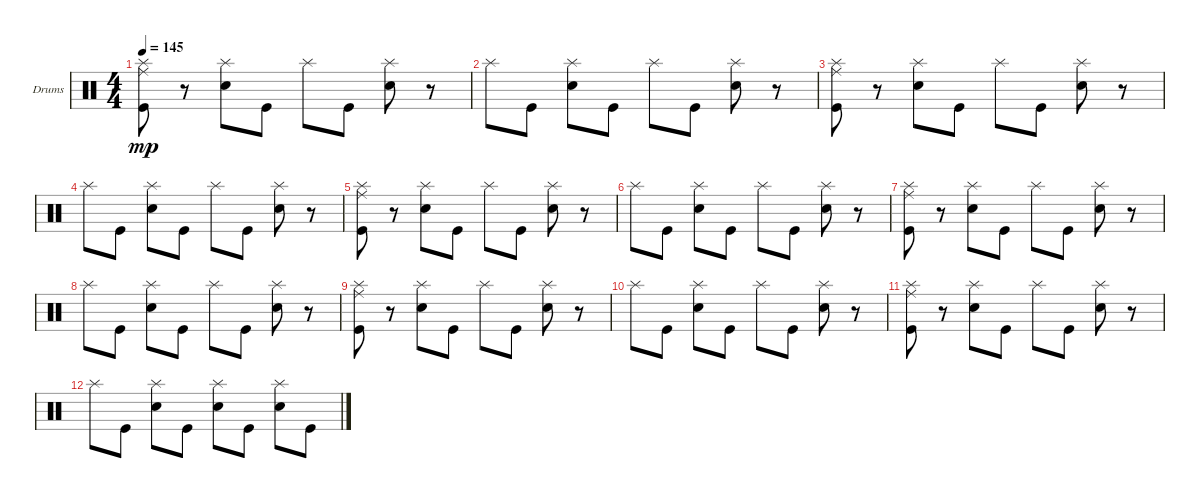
\defaultSystemsLayout 4
\bracketExtendMode groupsimilarinstruments
\firstSystemTrackNameOrientation horizontal
\otherSystemsTrackNameOrientation horizontal
\track ("Drumkit" "Drums") {instrument percussion}
\staff {score}
\articulation defaults
\ts (4 4)
\tempo 145
\clef neutral
\ks c
("Kick (hit)" "Ride (middle)" "Splash (hit)").8{dy mp} r.8 ("Snare (hit) 2" "Splash (hit)").8 "Kick (hit)".8 "Splash (hit)".8 "Kick (hit)".8 ("Snare (hit) 2" "Splash (hit)").8 r.8 |
"Splash (hit)".8 "Kick (hit)".8 ("Snare (hit) 2" "Splash (hit)").8 "Kick (hit)".8 "Splash (hit)".8 "Kick (hit)".8 ("Snare (hit) 2" "Splash (hit)").8 r.8 |
("Kick (hit)" "Ride (middle)" "Splash (hit)").8 r.8 ("Snare (hit) 2" "Splash (hit)").8 "Kick (hit)".8 "Splash (hit)".8 "Kick (hit)".8 ("Snare (hit) 2" "Splash (hit)").8 r.8 |
"Splash (hit)".8 "Kick (hit)".8 ("Snare (hit) 2" "Splash (hit)").8 "Kick (hit)".8 "Splash (hit)".8 "Kick (hit)".8 ("Snare (hit) 2" "Splash (hit)").8 r.8 |
("Kick (hit)" "Ride (middle)" "Splash (hit)").8 r.8 ("Snare (hit) 2" "Splash (hit)").8 "Kick (hit)".8 "Splash (hit)".8 "Kick (hit)".8 ("Snare (hit) 2" "Splash (hit)").8 r.8 |
"Splash (hit)".8 "Kick (hit)".8 ("Snare (hit) 2" "Splash (hit)").8 "Kick (hit)".8 "Splash (hit)".8 "Kick (hit)".8 ("Snare (hit) 2" "Splash (hit)").8 r.8 |
("Kick (hit)" "Ride (middle)" "Splash (hit)").8 r.8 ("Snare (hit) 2" "Splash (hit)").8 "Kick (hit)".8 "Splash (hit)".8 "Kick (hit)".8 ("Snare (hit) 2" "Splash (hit)").8 r.8 |
"Splash (hit)".8 "Kick (hit)".8 ("Snare (hit) 2" "Splash (hit)").8 "Kick (hit)".8 "Splash (hit)".8 "Kick (hit)".8 ("Snare (hit) 2" "Splash (hit)").8 r.8 |
("Kick (hit)" "Ride (middle)" "Splash (hit)").8 r.8 ("Snare (hit) 2" "Splash (hit)").8 "Kick (hit)".8 "Splash (hit)".8 "Kick (hit)".8 ("Snare (hit) 2" "Splash (hit)").8 r.8 |
"Splash (hit)".8 "Kick (hit)".8 ("Snare (hit) 2" "Splash (hit)").8 "Kick (hit)".8 "Splash (hit)".8 "Kick (hit)".8 ("Snare (hit) 2" "Splash (hit)").8 r.8 |
("Kick (hit)" "Ride (middle)" "Splash (hit)").8 r.8 ("Snare (hit) 2" "Splash (hit)").8 "Kick (hit)".8 "Splash (hit)".8 "Kick (hit)".8 ("Snare (hit) 2" "Splash (hit)").8 r.8 |
"Splash (hit)".8 "Kick (hit)".8 ("Snare (hit) 2" "Splash (hit)").8 "Kick (hit)".8 ("Splash (hit)" "Snare (hit) 2").8 "Kick (hit)".8 ("Snare (hit) 2" "Splash (hit)").8 "Kick (hit)".8
